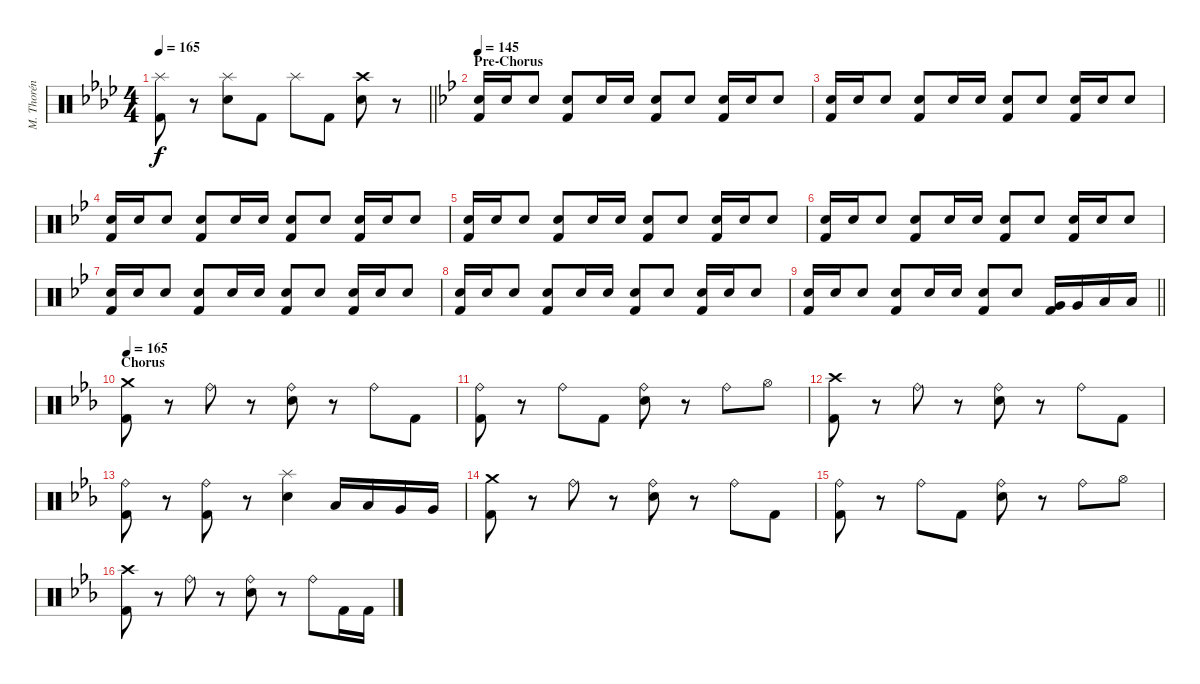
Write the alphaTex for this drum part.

\track ("M. Thorén (Drums)" "M. Thorén ") {instrument percussion}
\staff {score}
\articulation defaults
\ts (4 4)
\tempo 165
\clef neutral
\barLineRight lightlight
\ks fminor
("Splash (hit)" "Kick (hit) 2").8{dy f} r.8 ("Splash (hit)" "Electric Snare (hit)").8 "Kick (hit) 2".8 "Splash (hit)".8 "Kick (hit) 2".8 ("Crash high (hit)" "Electric Snare (hit)").8 r.8 |
\section ("" "Pre-Chorus")
\tempo 145
\ks gminor
("Electric Snare (hit)" "Kick (hit) 2").16 "Electric Snare (hit)".16 "Electric Snare (hit)".8 ("Electric Snare (hit)" "Kick (hit) 2").8 "Electric Snare (hit)".16 "Electric Snare (hit)".16 ("Electric Snare (hit)" "Kick (hit) 2").8 "Electric Snare (hit)".8 ("Electric Snare (hit)" "Kick (hit) 2").16 "Electric Snare (hit)".16 "Electric Snare (hit)".8 |
("Electric Snare (hit)" "Kick (hit) 2").16 "Electric Snare (hit)".16 "Electric Snare (hit)".8 ("Electric Snare (hit)" "Kick (hit) 2").8 "Electric Snare (hit)".16 "Electric Snare (hit)".16 ("Electric Snare (hit)" "Kick (hit) 2").8 "Electric Snare (hit)".8 ("Electric Snare (hit)" "Kick (hit) 2").16 "Electric Snare (hit)".16 "Electric Snare (hit)".8 |
("Electric Snare (hit)" "Kick (hit) 2").16 "Electric Snare (hit)".16 "Electric Snare (hit)".8 ("Electric Snare (hit)" "Kick (hit) 2").8 "Electric Snare (hit)".16 "Electric Snare (hit)".16 ("Electric Snare (hit)" "Kick (hit) 2").8 "Electric Snare (hit)".8 ("Electric Snare (hit)" "Kick (hit) 2").16 "Electric Snare (hit)".16 "Electric Snare (hit)".8 |
("Electric Snare (hit)" "Kick (hit) 2").16 "Electric Snare (hit)".16 "Electric Snare (hit)".8 ("Electric Snare (hit)" "Kick (hit) 2").8 "Electric Snare (hit)".16 "Electric Snare (hit)".16 ("Electric Snare (hit)" "Kick (hit) 2").8 "Electric Snare (hit)".8 ("Electric Snare (hit)" "Kick (hit) 2").16 "Electric Snare (hit)".16 "Electric Snare (hit)".8 |
("Electric Snare (hit)" "Kick (hit) 2").16 "Electric Snare (hit)".16 "Electric Snare (hit)".8 ("Electric Snare (hit)" "Kick (hit) 2").8 "Electric Snare (hit)".16 "Electric Snare (hit)".16 ("Electric Snare (hit)" "Kick (hit) 2").8 "Electric Snare (hit)".8 ("Electric Snare (hit)" "Kick (hit) 2").16 "Electric Snare (hit)".16 "Electric Snare (hit)".8 |
("Electric Snare (hit)" "Kick (hit) 2").16 "Electric Snare (hit)".16 "Electric Snare (hit)".8 ("Electric Snare (hit)" "Kick (hit) 2").8 "Electric Snare (hit)".16 "Electric Snare (hit)".16 ("Electric Snare (hit)" "Kick (hit) 2").8 "Electric Snare (hit)".8 ("Electric Snare (hit)" "Kick (hit) 2").16 "Electric Snare (hit)".16 "Electric Snare (hit)".8 |
("Electric Snare (hit)" "Kick (hit) 2").16 "Electric Snare (hit)".16 "Electric Snare (hit)".8 ("Electric Snare (hit)" "Kick (hit) 2").8 "Electric Snare (hit)".16 "Electric Snare (hit)".16 ("Electric Snare (hit)" "Kick (hit) 2").8 "Electric Snare (hit)".8 ("Electric Snare (hit)" "Kick (hit) 2").16 "Electric Snare (hit)".16 "Electric Snare (hit)".8 |
\barLineRight lightlight
("Electric Snare (hit)" "Kick (hit) 2").16 "Electric Snare (hit)".16 "Electric Snare (hit)".8 ("Electric Snare (hit)" "Kick (hit) 2").8 "Electric Snare (hit)".16 "Electric Snare (hit)".16 ("Electric Snare (hit)" "Kick (hit) 2").8 "Electric Snare (hit)".8 ("Very Low Tom (hit)" "Kick (hit) 2").16 "Very Low Tom (hit)".16 "Low Floor Tom (hit)".16 "Low Floor Tom (hit)".16 |
\section ("" "Chorus")
\tempo 165
\ks cminor
("Crash medium (hit)" "Kick (hit) 2").8 r.8 "Ride (bell)".8 r.8 ("Ride (bell)" "Electric Snare (hit)").8 r.8 "Ride (bell)".8 "Kick (hit) 2".8 |
("Ride (bell)" "Kick (hit) 2").8 r.8 "Ride (bell)".8 "Kick (hit) 2".8 ("Ride (bell)" "Electric Snare (hit)").8 r.8 "Ride (bell)".8 "Hi-Hat (open)".8 |
("Crash high (hit)" "Kick (hit) 2").8 r.8 "Ride (bell)".8 r.8 ("Ride (bell)" "Electric Snare (hit)").8 r.8 "Ride (bell)".8 "Kick (hit) 2".8 |
("Ride (bell)" "Kick (hit) 2").8 r.8 ("Ride (bell)" "Kick (hit) 2").8 r.8 ("Splash (hit)" "Electric Snare (hit)").4 "Low Tom (hit)".16 "Low Tom (hit)".16 "Very Low Tom (hit)".16 "Very Low Tom (hit)".16 |
("Crash medium (hit)" "Kick (hit) 2").8 r.8 "Ride (bell)".8 r.8 ("Ride (bell)" "Electric Snare (hit)").8 r.8 "Ride (bell)".8 "Kick (hit) 2".8 |
("Ride (bell)" "Kick (hit) 2").8 r.8 "Ride (bell)".8 "Kick (hit) 2".8 ("Ride (bell)" "Electric Snare (hit)").8 r.8 "Ride (bell)".8 "Hi-Hat (open)".8 |
("Crash high (hit)" "Kick (hit) 2").8 r.8 "Ride (bell)".8 r.8 ("Ride (bell)" "Electric Snare (hit)").8 r.8 "Ride (bell)".8 "Kick (hit) 2".16 "Kick (hit) 2".16
